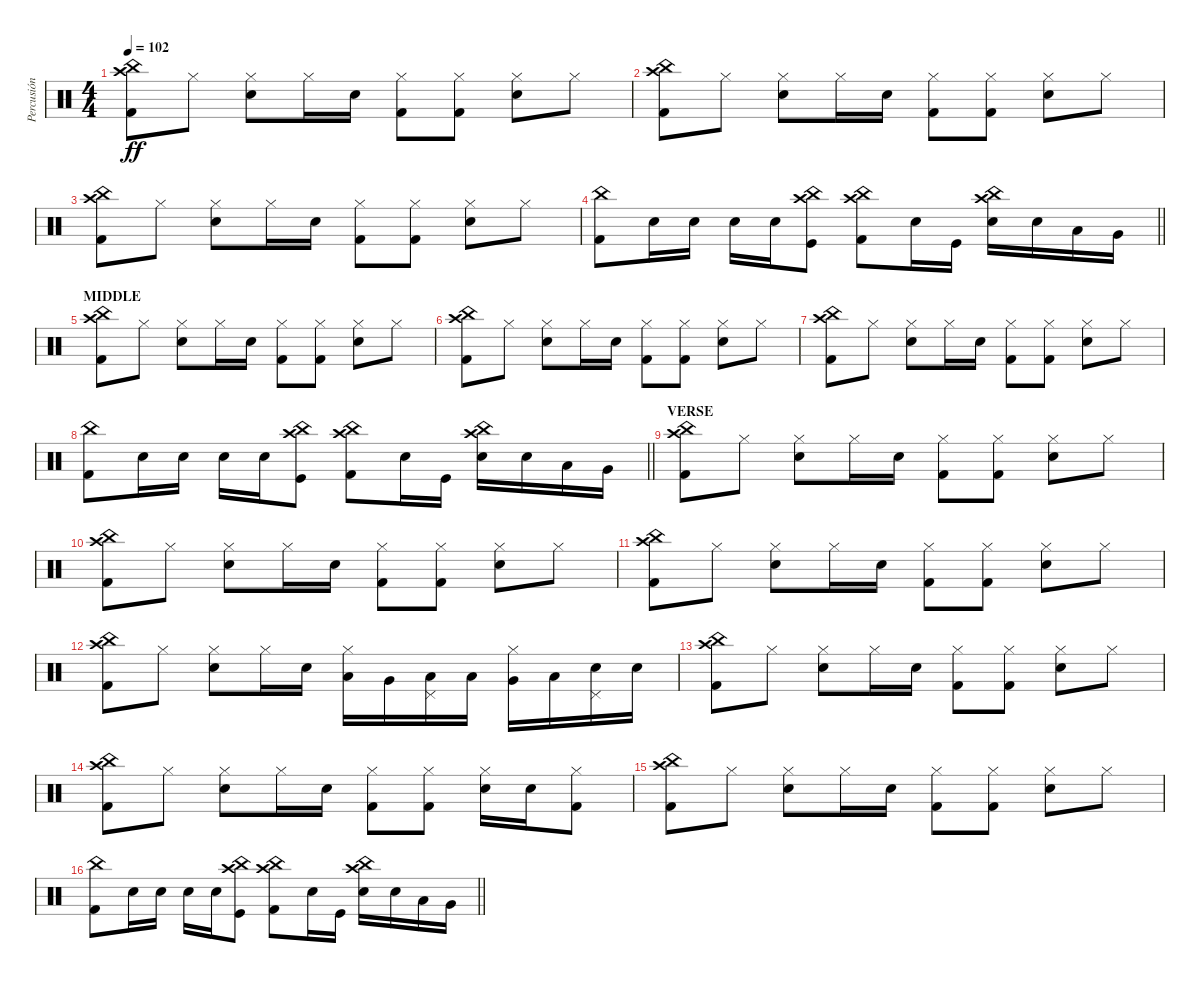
\track ("Percusión" "Percusión") {instrument percussion}
\staff {score}
\articulation defaults
\ts (4 4)
\tempo 102
\clef neutral
\ks c
("Kick (hit) 2" "China (hit)" "Crash high (hit)").8{dy ff} "Hi-Hat (closed)".8 ("Electric Snare (hit)" "Hi-Hat (closed)").8 "Hi-Hat (closed)".16 "Electric Snare (hit)".16 ("Kick (hit) 2" "Hi-Hat (closed)").8 ("Kick (hit) 2" "Hi-Hat (closed)").8 ("Electric Snare (hit)" "Hi-Hat (closed)").8 "Hi-Hat (closed)".8 |
("Kick (hit) 2" "China (hit)" "Crash high (hit)").8 "Hi-Hat (closed)".8 ("Electric Snare (hit)" "Hi-Hat (closed)").8 "Hi-Hat (closed)".16 "Electric Snare (hit)".16 ("Kick (hit) 2" "Hi-Hat (closed)").8 ("Kick (hit) 2" "Hi-Hat (closed)").8 ("Electric Snare (hit)" "Hi-Hat (closed)").8 "Hi-Hat (closed)".8 |
("Kick (hit) 2" "China (hit)" "Crash high (hit)").8 "Hi-Hat (closed)".8 ("Electric Snare (hit)" "Hi-Hat (closed)").8 "Hi-Hat (closed)".16 "Electric Snare (hit)".16 ("Kick (hit) 2" "Hi-Hat (closed)").8 ("Kick (hit) 2" "Hi-Hat (closed)").8 ("Electric Snare (hit)" "Hi-Hat (closed)").8 "Hi-Hat (closed)".8 |
\barLineRight lightlight
("Kick (hit) 2" "China (hit)").8 "Electric Snare (hit)".16 "Electric Snare (hit)".16 "Electric Snare (hit)".16 "Electric Snare (hit)".16 ("Kick (hit)" "China (hit)" "Crash high (hit)").8 ("Kick (hit) 2" "China (hit)" "Crash high (hit)").8 "Electric Snare (hit)".16 "Kick (hit)".16 ("Electric Snare (hit)" "China (hit)" "Crash high (hit)").16 "Electric Snare (hit)".16 "Low Floor Tom (hit)".16 "Very Low Tom (hit)".16 |
\section ("" "MIDDLE")
("Kick (hit) 2" "China (hit)" "Crash high (hit)").8 "Hi-Hat (closed)".8 ("Electric Snare (hit)" "Hi-Hat (closed)").8 "Hi-Hat (closed)".16 "Electric Snare (hit)".16 ("Kick (hit) 2" "Hi-Hat (closed)").8 ("Kick (hit) 2" "Hi-Hat (closed)").8 ("Electric Snare (hit)" "Hi-Hat (closed)").8 "Hi-Hat (closed)".8 |
("Kick (hit) 2" "China (hit)" "Crash high (hit)").8 "Hi-Hat (closed)".8 ("Electric Snare (hit)" "Hi-Hat (closed)").8 "Hi-Hat (closed)".16 "Electric Snare (hit)".16 ("Kick (hit) 2" "Hi-Hat (closed)").8 ("Kick (hit) 2" "Hi-Hat (closed)").8 ("Electric Snare (hit)" "Hi-Hat (closed)").8 "Hi-Hat (closed)".8 |
("Kick (hit) 2" "China (hit)" "Crash high (hit)").8 "Hi-Hat (closed)".8 ("Electric Snare (hit)" "Hi-Hat (closed)").8 "Hi-Hat (closed)".16 "Electric Snare (hit)".16 ("Kick (hit) 2" "Hi-Hat (closed)").8 ("Kick (hit) 2" "Hi-Hat (closed)").8 ("Electric Snare (hit)" "Hi-Hat (closed)").8 "Hi-Hat (closed)".8 |
\barLineRight lightlight
("Kick (hit) 2" "China (hit)").8 "Electric Snare (hit)".16 "Electric Snare (hit)".16 "Electric Snare (hit)".16 "Electric Snare (hit)".16 ("Kick (hit)" "China (hit)" "Crash high (hit)").8 ("Kick (hit) 2" "China (hit)" "Crash high (hit)").8 "Electric Snare (hit)".16 "Kick (hit)".16 ("Electric Snare (hit)" "China (hit)" "Crash high (hit)").16 "Electric Snare (hit)".16 "Low Floor Tom (hit)".16 "Very Low Tom (hit)".16 |
\section ("" "VERSE")
("Kick (hit) 2" "China (hit)" "Crash high (hit)").8 "Hi-Hat (closed)".8 ("Electric Snare (hit)" "Hi-Hat (closed)").8 "Hi-Hat (closed)".16 "Electric Snare (hit)".16 ("Kick (hit) 2" "Hi-Hat (closed)").8 ("Kick (hit) 2" "Hi-Hat (closed)").8 ("Electric Snare (hit)" "Hi-Hat (closed)").8 "Hi-Hat (closed)".8 |
("Kick (hit) 2" "China (hit)" "Crash high (hit)").8 "Hi-Hat (closed)".8 ("Electric Snare (hit)" "Hi-Hat (closed)").8 "Hi-Hat (closed)".16 "Electric Snare (hit)".16 ("Kick (hit) 2" "Hi-Hat (closed)").8 ("Kick (hit) 2" "Hi-Hat (closed)").8 ("Electric Snare (hit)" "Hi-Hat (closed)").8 "Hi-Hat (closed)".8 |
("Kick (hit) 2" "China (hit)" "Crash high (hit)").8 "Hi-Hat (closed)".8 ("Electric Snare (hit)" "Hi-Hat (closed)").8 "Hi-Hat (closed)".16 "Electric Snare (hit)".16 ("Kick (hit) 2" "Hi-Hat (closed)").8 ("Kick (hit) 2" "Hi-Hat (closed)").8 ("Electric Snare (hit)" "Hi-Hat (closed)").8 "Hi-Hat (closed)".8 |
("Kick (hit) 2" "China (hit)" "Crash high (hit)").8 "Hi-Hat (closed)".8 ("Electric Snare (hit)" "Hi-Hat (closed)").8 "Hi-Hat (closed)".16 "Electric Snare (hit)".16 ("Low Tom (hit)" "Hi-Hat (closed)").16 "Very Low Tom (hit)".16 ("Low Floor Tom (hit)" "Pedal Hi-Hat (hit)").16 "Low Tom (hit)".16 ("Very Low Tom (hit)" "Hi-Hat (closed)").16 "Low Floor Tom (hit)".16 ("Electric Snare (hit)" "Pedal Hi-Hat (hit)").16 "Electric Snare (hit)".16 |
("Kick (hit) 2" "China (hit)" "Crash high (hit)").8 "Hi-Hat (closed)".8 ("Electric Snare (hit)" "Hi-Hat (closed)").8 "Hi-Hat (closed)".16 "Electric Snare (hit)".16 ("Kick (hit) 2" "Hi-Hat (closed)").8 ("Kick (hit) 2" "Hi-Hat (closed)").8 ("Electric Snare (hit)" "Hi-Hat (closed)").8 "Hi-Hat (closed)".8 |
("Kick (hit) 2" "China (hit)" "Crash high (hit)").8 "Hi-Hat (closed)".8 ("Electric Snare (hit)" "Hi-Hat (closed)").8 "Hi-Hat (closed)".16 "Electric Snare (hit)".16 ("Kick (hit) 2" "Hi-Hat (closed)").8 ("Kick (hit) 2" "Hi-Hat (closed)").8 ("Electric Snare (hit)" "Hi-Hat (closed)").16 "Electric Snare (hit)".16 ("Kick (hit) 2" "Hi-Hat (closed)").8 |
("Kick (hit) 2" "China (hit)" "Crash high (hit)").8 "Hi-Hat (closed)".8 ("Electric Snare (hit)" "Hi-Hat (closed)").8 "Hi-Hat (closed)".16 "Electric Snare (hit)".16 ("Kick (hit) 2" "Hi-Hat (closed)").8 ("Kick (hit) 2" "Hi-Hat (closed)").8 ("Electric Snare (hit)" "Hi-Hat (closed)").8 "Hi-Hat (closed)".8 |
\barLineRight lightlight
("Kick (hit) 2" "China (hit)").8 "Electric Snare (hit)".16 "Electric Snare (hit)".16 "Electric Snare (hit)".16 "Electric Snare (hit)".16 ("Kick (hit)" "China (hit)" "Crash high (hit)").8 ("Kick (hit) 2" "China (hit)" "Crash high (hit)").8 "Electric Snare (hit)".16 "Kick (hit)".16 ("Electric Snare (hit)" "China (hit)" "Crash high (hit)").16 "Electric Snare (hit)".16 "Low Floor Tom (hit)".16 "Very Low Tom (hit)".16
